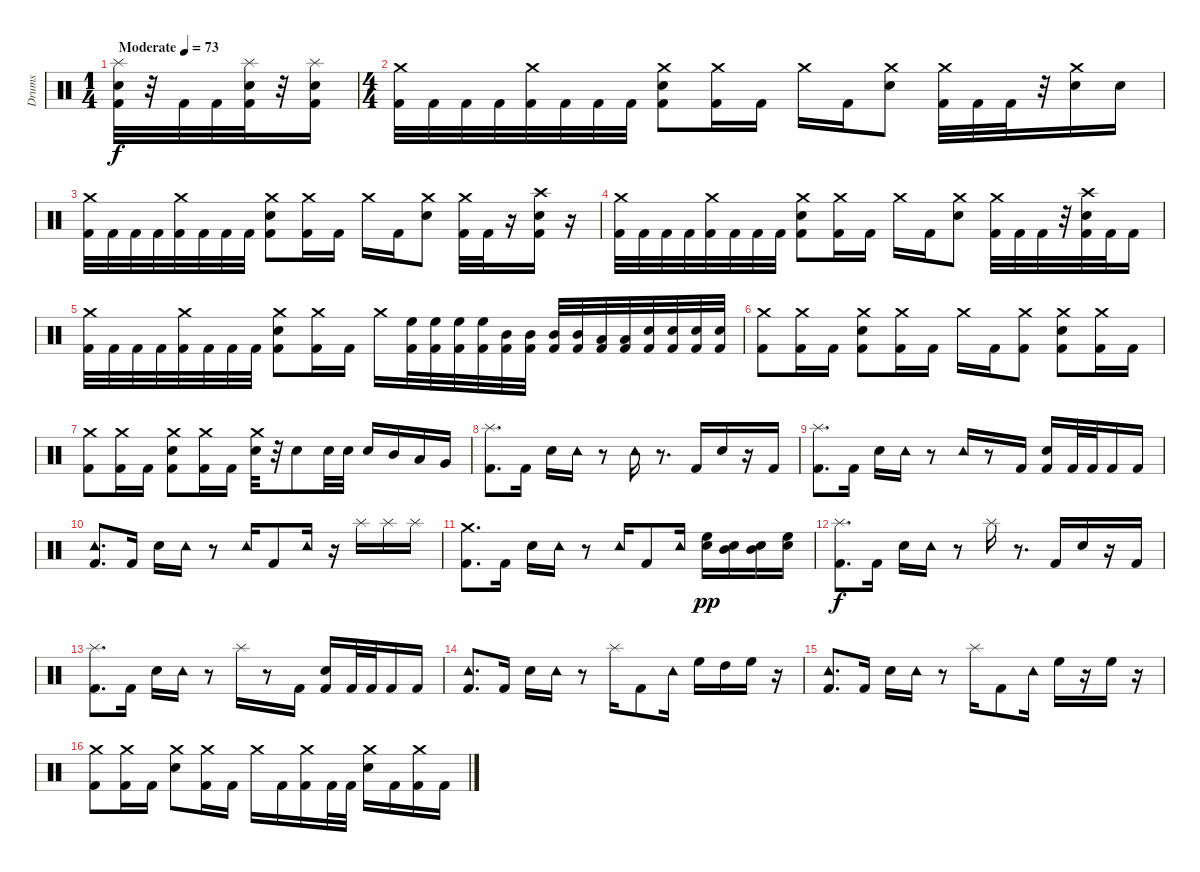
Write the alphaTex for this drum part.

\track ("Drums" "Drums") {instrument percussion}
\staff {score}
\articulation defaults
\ts (1 4)
\tempo (73 "Moderate")
\clef neutral
\ks c
("Splash (hit)" "Electric Snare (hit)" "Kick (hit) 2").32{dy f} r.32 "Kick (hit) 2".32 "Kick (hit) 2".32 ("Splash (hit)" "Electric Snare (hit)" "Kick (hit) 2").32 r.32 ("Splash (hit)" "Electric Snare (hit)" "Kick (hit) 2").16 |
\ts (4 4)
("Crash medium (hit)" "Kick (hit) 2").32 "Kick (hit) 2".32 "Kick (hit) 2".32 "Kick (hit) 2".32 ("Crash medium (hit)" "Kick (hit) 2").32 "Kick (hit) 2".32 "Kick (hit) 2".32 "Kick (hit) 2".32 ("Crash medium (hit)" "Electric Snare (hit)" "Kick (hit) 2").8 ("Crash medium (hit)" "Kick (hit) 2").16 "Kick (hit) 2".16 "Crash medium (hit)".16 "Kick (hit) 2".16 ("Crash medium (hit)" "Electric Snare (hit)").8 ("Crash medium (hit)" "Kick (hit) 2").32 "Kick (hit) 2".32 "Kick (hit) 2".32 r.32 ("Crash medium (hit)" "Electric Snare (hit)").16 "Electric Snare (hit)".16 |
("Crash medium (hit)" "Kick (hit) 2").32 "Kick (hit) 2".32 "Kick (hit) 2".32 "Kick (hit) 2".32 ("Crash medium (hit)" "Kick (hit) 2").32 "Kick (hit) 2".32 "Kick (hit) 2".32 "Kick (hit) 2".32 ("Crash medium (hit)" "Electric Snare (hit)" "Kick (hit) 2").8 ("Crash medium (hit)" "Kick (hit) 2").16 "Kick (hit) 2".16 "Crash medium (hit)".16 "Kick (hit) 2".16 ("Crash medium (hit)" "Electric Snare (hit)").8 ("Crash medium (hit)" "Kick (hit) 2").32 "Kick (hit) 2".32 r.16 ("Crash high (hit)" "Electric Snare (hit)" "Kick (hit) 2").16 r.16 |
("Crash medium (hit)" "Kick (hit) 2").32 "Kick (hit) 2".32 "Kick (hit) 2".32 "Kick (hit) 2".32 ("Crash medium (hit)" "Kick (hit) 2").32 "Kick (hit) 2".32 "Kick (hit) 2".32 "Kick (hit) 2".32 ("Crash medium (hit)" "Electric Snare (hit)" "Kick (hit) 2").8 ("Crash medium (hit)" "Kick (hit) 2").16 "Kick (hit) 2".16 "Crash medium (hit)".16 "Kick (hit) 2".16 ("Crash medium (hit)" "Electric Snare (hit)").8 ("Crash medium (hit)" "Kick (hit) 2").32 "Kick (hit) 2".32 "Kick (hit) 2".32 r.32 ("Crash high (hit)" "Electric Snare (hit)" "Kick (hit) 2").32 "Kick (hit) 2".32 "Kick (hit) 2".16 |
("Crash medium (hit)" "Kick (hit) 2").32 "Kick (hit) 2".32 "Kick (hit) 2".32 "Kick (hit) 2".32 ("Crash medium (hit)" "Kick (hit) 2").32 "Kick (hit) 2".32 "Kick (hit) 2".32 "Kick (hit) 2".32 ("Crash medium (hit)" "Electric Snare (hit)" "Kick (hit) 2").8 ("Crash medium (hit)" "Kick (hit) 2").16 "Kick (hit) 2".16 "Crash medium (hit)".16 ("High Floor Tom (hit)" "Kick (hit) 2").32 ("High Floor Tom (hit)" "Kick (hit) 2").32 ("High Floor Tom (hit)" "Kick (hit) 2").32 ("High Floor Tom (hit)" "Kick (hit) 2").32 ("Mid Tom (hit)" "Kick (hit) 2").32 ("Mid Tom (hit)" "Kick (hit) 2").32 ("Mid Tom (hit)" "Kick (hit) 2").32 ("Mid Tom (hit)" "Kick (hit) 2").32 ("Low Tom (hit)" "Kick (hit) 2").32 ("Low Tom (hit)" "Kick (hit) 2").32 ("Snare (hit) 2" "Kick (hit) 2").32 ("Snare (hit) 2" "Kick (hit) 2").32 ("Snare (hit) 2" "Kick (hit) 2").32 ("Snare (hit) 2" "Kick (hit) 2").32 |
("Crash medium (hit)" "Kick (hit) 2").8 ("Crash medium (hit)" "Kick (hit) 2").16 "Kick (hit) 2".16 ("Crash medium (hit)" "Electric Snare (hit)" "Kick (hit) 2").8 ("Crash medium (hit)" "Kick (hit) 2").16 "Kick (hit) 2".16 "Crash medium (hit)".16 "Kick (hit) 2".16 ("Crash medium (hit)" "Kick (hit) 2").8 ("Crash medium (hit)" "Electric Snare (hit)" "Kick (hit) 2").8 ("Crash medium (hit)" "Kick (hit) 2").16 "Kick (hit) 2".16 |
("Crash medium (hit)" "Kick (hit) 2").8 ("Crash medium (hit)" "Kick (hit) 2").16 "Kick (hit) 2".16 ("Crash medium (hit)" "Electric Snare (hit)" "Kick (hit) 2").8 ("Crash medium (hit)" "Kick (hit) 2").16 "Kick (hit) 2".16 ("Crash medium (hit)" "Snare (hit) 2").32 r.32 "Electric Snare (hit)".8 "Snare (hit) 2".32 "Snare (hit) 2".32 "Electric Snare (hit)".16 "Mid Tom (hit)".16 "Low Tom (hit)".16 "Very Low Tom (hit)".16 |
("Splash (hit)" "Kick (hit) 2").8{d} "Kick (hit) 2".16 "Electric Snare (hit)".16 "Tambourine (hit)".16 r.8 "Tambourine (hit)".16 r.8{d} "Kick (hit) 2".16 "Electric Snare (hit)".16 r.16 "Kick (hit) 2".16 |
("Splash (hit)" "Kick (hit) 2").8{d} "Kick (hit) 2".16 "Electric Snare (hit)".16 "Tambourine (hit)".16 r.8 "Tambourine (hit)".16 r.8 "Kick (hit) 2".16 ("Electric Snare (hit)" "Kick (hit) 2").16 "Kick (hit) 2".32 "Kick (hit) 2".32 "Kick (hit) 2".16 "Kick (hit) 2".16 |
("Tambourine (hit)" "Kick (hit) 2").8{d} "Kick (hit) 2".16 "Electric Snare (hit)".16 "Tambourine (hit)".16 r.8 "Tambourine (hit)".16 "Kick (hit) 2".8 "Tambourine (hit)".16 r.16 "Splash (hit)".16 "Splash (hit)".16 "Splash (hit)".16 |
("Crash medium (hit)" "Kick (hit) 2").8{d} "Kick (hit) 2".16 "Electric Snare (hit)".16 "Tambourine (hit)".16 r.8 "Tambourine (hit)".16 "Kick (hit) 2".8 "Tambourine (hit)".16 ("High Floor Tom (hit)" "Snare (hit) 2").16{dy pp} ("Mid Tom (hit)" "Snare (hit) 2").16 ("Mid Tom (hit)" "Snare (hit) 2").16 ("High Floor Tom (hit)" "Snare (hit) 2").16 |
("Splash (hit)" "Kick (hit) 2").8{d dy f} "Kick (hit) 2".16 "Electric Snare (hit)".16 "Tambourine (hit)".16 r.8 "Splash (hit)".16 r.8{d} "Kick (hit) 2".16 "Electric Snare (hit)".16 r.16 "Kick (hit) 2".16 |
("Splash (hit)" "Kick (hit) 2").8{d} "Kick (hit) 2".16 "Electric Snare (hit)".16 "Tambourine (hit)".16 r.8 "Splash (hit)".16 r.8 "Kick (hit) 2".16 ("Electric Snare (hit)" "Kick (hit) 2").16 "Kick (hit) 2".32 "Kick (hit) 2".32 "Kick (hit) 2".16 "Kick (hit) 2".16 |
("Tambourine (hit)" "Kick (hit) 2").8{d} "Kick (hit) 2".16 "Electric Snare (hit)".16 "Tambourine (hit)".16 r.8 "Splash (hit)".16 "Kick (hit) 2".8 "Tambourine (hit)".16 "High Floor Tom (hit)".16 "High Tom (hit)".16 "High Floor Tom (hit)".16 r.16 |
("Tambourine (hit)" "Kick (hit) 2").8{d} "Kick (hit) 2".16 "Electric Snare (hit)".16 "Tambourine (hit)".16 r.8 "Splash (hit)".16 "Kick (hit) 2".8 "Tambourine (hit)".16 "High Floor Tom (hit)".16 r.16 "High Floor Tom (hit)".16 r.16 |
("Crash medium (hit)" "Kick (hit) 2").8 ("Crash medium (hit)" "Kick (hit) 2").16 "Kick (hit) 2".16 ("Crash medium (hit)" "Electric Snare (hit)").8 ("Crash medium (hit)" "Kick (hit) 2").16 "Kick (hit) 2".16 "Crash medium (hit)".16 "Kick (hit) 2".16 ("Crash medium (hit)" "Kick (hit) 2").16 "Kick (hit) 2".32 "Kick (hit) 2".32 ("Crash medium (hit)" "Electric Snare (hit)").16 "Kick (hit) 2".16 ("Crash medium (hit)" "Kick (hit) 2").16 "Kick (hit) 2".16
